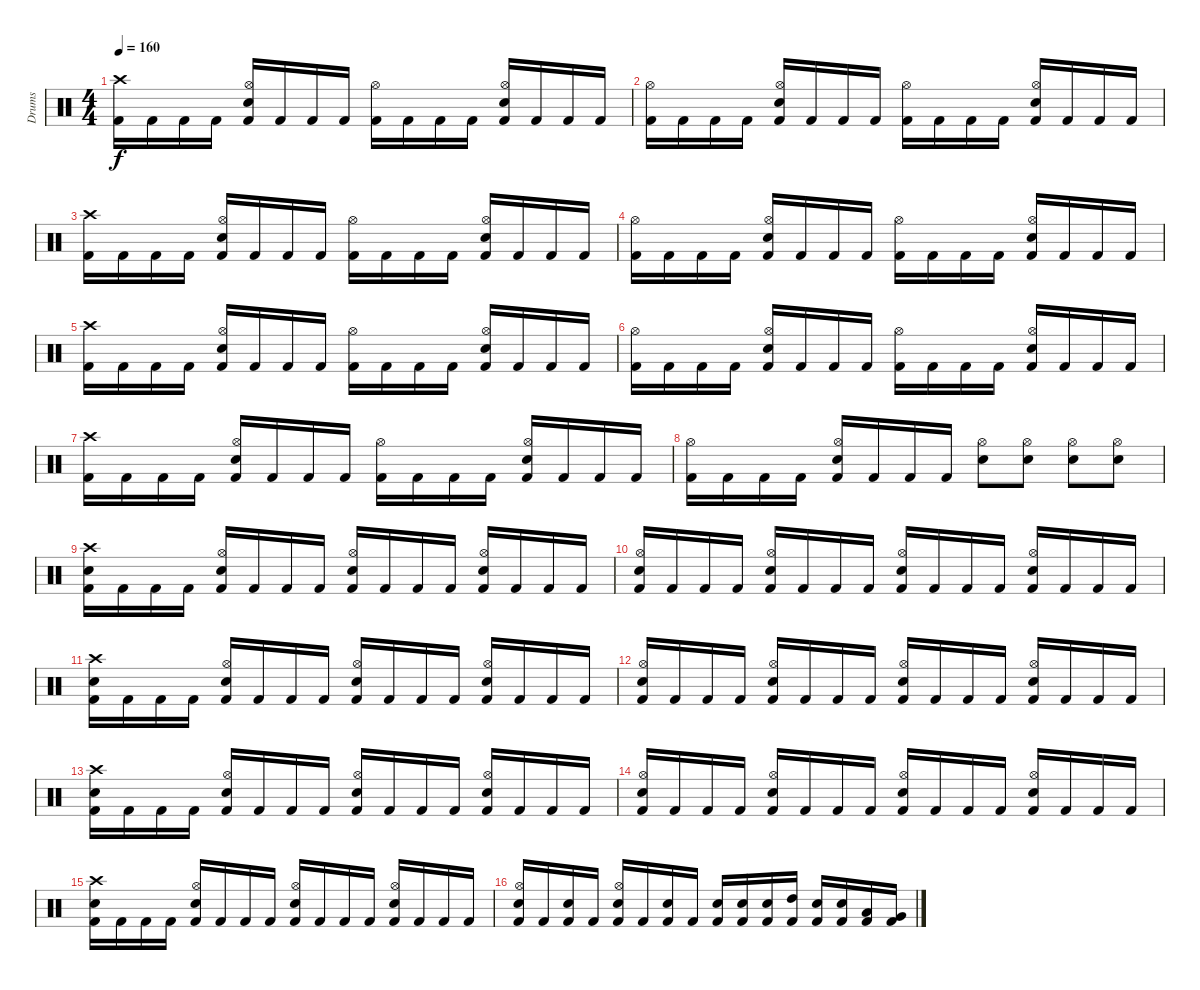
\track ("Drums" "Drums") {instrument percussion}
\staff {score}
\articulation defaults
\ts (4 4)
\tempo 160
\clef neutral
\ks c
("Crash high (hit)" "Kick (hit) 2").16{dy f} "Kick (hit) 2".16 "Kick (hit) 2".16 "Kick (hit) 2".16 ("Hi-Hat (open)" "Snare (hit) 2" "Kick (hit) 2").16 "Kick (hit) 2".16 "Kick (hit) 2".16 "Kick (hit) 2".16 ("Hi-Hat (open)" "Kick (hit) 2").16 "Kick (hit) 2".16 "Kick (hit) 2".16 "Kick (hit) 2".16 ("Hi-Hat (open)" "Snare (hit) 2" "Kick (hit) 2").16 "Kick (hit) 2".16 "Kick (hit) 2".16 "Kick (hit) 2".16 |
("Hi-Hat (open)" "Kick (hit) 2").16 "Kick (hit) 2".16 "Kick (hit) 2".16 "Kick (hit) 2".16 ("Hi-Hat (open)" "Snare (hit) 2" "Kick (hit) 2").16 "Kick (hit) 2".16 "Kick (hit) 2".16 "Kick (hit) 2".16 ("Hi-Hat (open)" "Kick (hit) 2").16 "Kick (hit) 2".16 "Kick (hit) 2".16 "Kick (hit) 2".16 ("Hi-Hat (open)" "Snare (hit) 2" "Kick (hit) 2").16 "Kick (hit) 2".16 "Kick (hit) 2".16 "Kick (hit) 2".16 |
("Crash high (hit)" "Kick (hit) 2").16 "Kick (hit) 2".16 "Kick (hit) 2".16 "Kick (hit) 2".16 ("Hi-Hat (open)" "Snare (hit) 2" "Kick (hit) 2").16 "Kick (hit) 2".16 "Kick (hit) 2".16 "Kick (hit) 2".16 ("Hi-Hat (open)" "Kick (hit) 2").16 "Kick (hit) 2".16 "Kick (hit) 2".16 "Kick (hit) 2".16 ("Hi-Hat (open)" "Snare (hit) 2" "Kick (hit) 2").16 "Kick (hit) 2".16 "Kick (hit) 2".16 "Kick (hit) 2".16 |
("Hi-Hat (open)" "Kick (hit) 2").16 "Kick (hit) 2".16 "Kick (hit) 2".16 "Kick (hit) 2".16 ("Hi-Hat (open)" "Snare (hit) 2" "Kick (hit) 2").16 "Kick (hit) 2".16 "Kick (hit) 2".16 "Kick (hit) 2".16 ("Hi-Hat (open)" "Kick (hit) 2").16 "Kick (hit) 2".16 "Kick (hit) 2".16 "Kick (hit) 2".16 ("Hi-Hat (open)" "Snare (hit) 2" "Kick (hit) 2").16 "Kick (hit) 2".16 "Kick (hit) 2".16 "Kick (hit) 2".16 |
("Crash high (hit)" "Kick (hit) 2").16 "Kick (hit) 2".16 "Kick (hit) 2".16 "Kick (hit) 2".16 ("Hi-Hat (open)" "Snare (hit) 2" "Kick (hit) 2").16 "Kick (hit) 2".16 "Kick (hit) 2".16 "Kick (hit) 2".16 ("Hi-Hat (open)" "Kick (hit) 2").16 "Kick (hit) 2".16 "Kick (hit) 2".16 "Kick (hit) 2".16 ("Hi-Hat (open)" "Snare (hit) 2" "Kick (hit) 2").16 "Kick (hit) 2".16 "Kick (hit) 2".16 "Kick (hit) 2".16 |
("Hi-Hat (open)" "Kick (hit) 2").16 "Kick (hit) 2".16 "Kick (hit) 2".16 "Kick (hit) 2".16 ("Hi-Hat (open)" "Snare (hit) 2" "Kick (hit) 2").16 "Kick (hit) 2".16 "Kick (hit) 2".16 "Kick (hit) 2".16 ("Hi-Hat (open)" "Kick (hit) 2").16 "Kick (hit) 2".16 "Kick (hit) 2".16 "Kick (hit) 2".16 ("Hi-Hat (open)" "Snare (hit) 2" "Kick (hit) 2").16 "Kick (hit) 2".16 "Kick (hit) 2".16 "Kick (hit) 2".16 |
("Crash high (hit)" "Kick (hit) 2").16 "Kick (hit) 2".16 "Kick (hit) 2".16 "Kick (hit) 2".16 ("Hi-Hat (open)" "Snare (hit) 2" "Kick (hit) 2").16 "Kick (hit) 2".16 "Kick (hit) 2".16 "Kick (hit) 2".16 ("Hi-Hat (open)" "Kick (hit) 2").16 "Kick (hit) 2".16 "Kick (hit) 2".16 "Kick (hit) 2".16 ("Hi-Hat (open)" "Snare (hit) 2" "Kick (hit) 2").16 "Kick (hit) 2".16 "Kick (hit) 2".16 "Kick (hit) 2".16 |
("Hi-Hat (open)" "Kick (hit) 2").16 "Kick (hit) 2".16 "Kick (hit) 2".16 "Kick (hit) 2".16 ("Hi-Hat (open)" "Snare (hit) 2" "Kick (hit) 2").16 "Kick (hit) 2".16 "Kick (hit) 2".16 "Kick (hit) 2".16 ("Hi-Hat (open)" "Snare (hit) 2").8 ("Hi-Hat (open)" "Snare (hit) 2").8 ("Hi-Hat (open)" "Snare (hit) 2").8 ("Hi-Hat (open)" "Snare (hit) 2").8 |
("Crash high (hit)" "Snare (hit) 2" "Kick (hit) 2").16 "Kick (hit) 2".16 "Kick (hit) 2".16 "Kick (hit) 2".16 ("Hi-Hat (open)" "Snare (hit) 2" "Kick (hit) 2").16 "Kick (hit) 2".16 "Kick (hit) 2".16 "Kick (hit) 2".16 ("Hi-Hat (open)" "Snare (hit) 2" "Kick (hit) 2").16 "Kick (hit) 2".16 "Kick (hit) 2".16 "Kick (hit) 2".16 ("Hi-Hat (open)" "Snare (hit) 2" "Kick (hit) 2").16 "Kick (hit) 2".16 "Kick (hit) 2".16 "Kick (hit) 2".16 |
("Hi-Hat (open)" "Snare (hit) 2" "Kick (hit) 2").16 "Kick (hit) 2".16 "Kick (hit) 2".16 "Kick (hit) 2".16 ("Hi-Hat (open)" "Snare (hit) 2" "Kick (hit) 2").16 "Kick (hit) 2".16 "Kick (hit) 2".16 "Kick (hit) 2".16 ("Hi-Hat (open)" "Snare (hit) 2" "Kick (hit) 2").16 "Kick (hit) 2".16 "Kick (hit) 2".16 "Kick (hit) 2".16 ("Hi-Hat (open)" "Snare (hit) 2" "Kick (hit) 2").16 "Kick (hit) 2".16 "Kick (hit) 2".16 "Kick (hit) 2".16 |
("Crash high (hit)" "Snare (hit) 2" "Kick (hit) 2").16 "Kick (hit) 2".16 "Kick (hit) 2".16 "Kick (hit) 2".16 ("Hi-Hat (open)" "Snare (hit) 2" "Kick (hit) 2").16 "Kick (hit) 2".16 "Kick (hit) 2".16 "Kick (hit) 2".16 ("Hi-Hat (open)" "Snare (hit) 2" "Kick (hit) 2").16 "Kick (hit) 2".16 "Kick (hit) 2".16 "Kick (hit) 2".16 ("Hi-Hat (open)" "Snare (hit) 2" "Kick (hit) 2").16 "Kick (hit) 2".16 "Kick (hit) 2".16 "Kick (hit) 2".16 |
("Hi-Hat (open)" "Snare (hit) 2" "Kick (hit) 2").16 "Kick (hit) 2".16 "Kick (hit) 2".16 "Kick (hit) 2".16 ("Hi-Hat (open)" "Snare (hit) 2" "Kick (hit) 2").16 "Kick (hit) 2".16 "Kick (hit) 2".16 "Kick (hit) 2".16 ("Hi-Hat (open)" "Snare (hit) 2" "Kick (hit) 2").16 "Kick (hit) 2".16 "Kick (hit) 2".16 "Kick (hit) 2".16 ("Hi-Hat (open)" "Snare (hit) 2" "Kick (hit) 2").16 "Kick (hit) 2".16 "Kick (hit) 2".16 "Kick (hit) 2".16 |
("Crash high (hit)" "Snare (hit) 2" "Kick (hit) 2").16 "Kick (hit) 2".16 "Kick (hit) 2".16 "Kick (hit) 2".16 ("Hi-Hat (open)" "Snare (hit) 2" "Kick (hit) 2").16 "Kick (hit) 2".16 "Kick (hit) 2".16 "Kick (hit) 2".16 ("Hi-Hat (open)" "Snare (hit) 2" "Kick (hit) 2").16 "Kick (hit) 2".16 "Kick (hit) 2".16 "Kick (hit) 2".16 ("Hi-Hat (open)" "Snare (hit) 2" "Kick (hit) 2").16 "Kick (hit) 2".16 "Kick (hit) 2".16 "Kick (hit) 2".16 |
("Hi-Hat (open)" "Snare (hit) 2" "Kick (hit) 2").16 "Kick (hit) 2".16 "Kick (hit) 2".16 "Kick (hit) 2".16 ("Hi-Hat (open)" "Snare (hit) 2" "Kick (hit) 2").16 "Kick (hit) 2".16 "Kick (hit) 2".16 "Kick (hit) 2".16 ("Hi-Hat (open)" "Snare (hit) 2" "Kick (hit) 2").16 "Kick (hit) 2".16 "Kick (hit) 2".16 "Kick (hit) 2".16 ("Hi-Hat (open)" "Snare (hit) 2" "Kick (hit) 2").16 "Kick (hit) 2".16 "Kick (hit) 2".16 "Kick (hit) 2".16 |
("Crash high (hit)" "Snare (hit) 2" "Kick (hit) 2").16 "Kick (hit) 2".16 "Kick (hit) 2".16 "Kick (hit) 2".16 ("Hi-Hat (open)" "Snare (hit) 2" "Kick (hit) 2").16 "Kick (hit) 2".16 "Kick (hit) 2".16 "Kick (hit) 2".16 ("Hi-Hat (open)" "Snare (hit) 2" "Kick (hit) 2").16 "Kick (hit) 2".16 "Kick (hit) 2".16 "Kick (hit) 2".16 ("Hi-Hat (open)" "Snare (hit) 2" "Kick (hit) 2").16 "Kick (hit) 2".16 "Kick (hit) 2".16 "Kick (hit) 2".16 |
("Hi-Hat (open)" "Snare (hit) 2" "Kick (hit) 2").16 "Kick (hit) 2".16 ("Snare (hit) 2" "Kick (hit) 2").16 "Kick (hit) 2".16 ("Hi-Hat (open)" "Snare (hit) 2" "Kick (hit) 2").16 "Kick (hit) 2".16 ("Snare (hit) 2" "Kick (hit) 2").16 "Kick (hit) 2".16 ("Snare (hit) 2" "Kick (hit) 2").16 ("Snare (hit) 2" "Kick (hit) 2").16 ("Snare (hit) 2" "Kick (hit) 2").16 ("High Tom (hit)" "Kick (hit) 2").16 ("Snare (hit) 2" "Kick (hit) 2").16 ("Snare (hit) 2" "Kick (hit) 2").16 ("Low Tom (hit)" "Kick (hit) 2").16 ("Very Low Tom (hit)" "Kick (hit) 2").16
